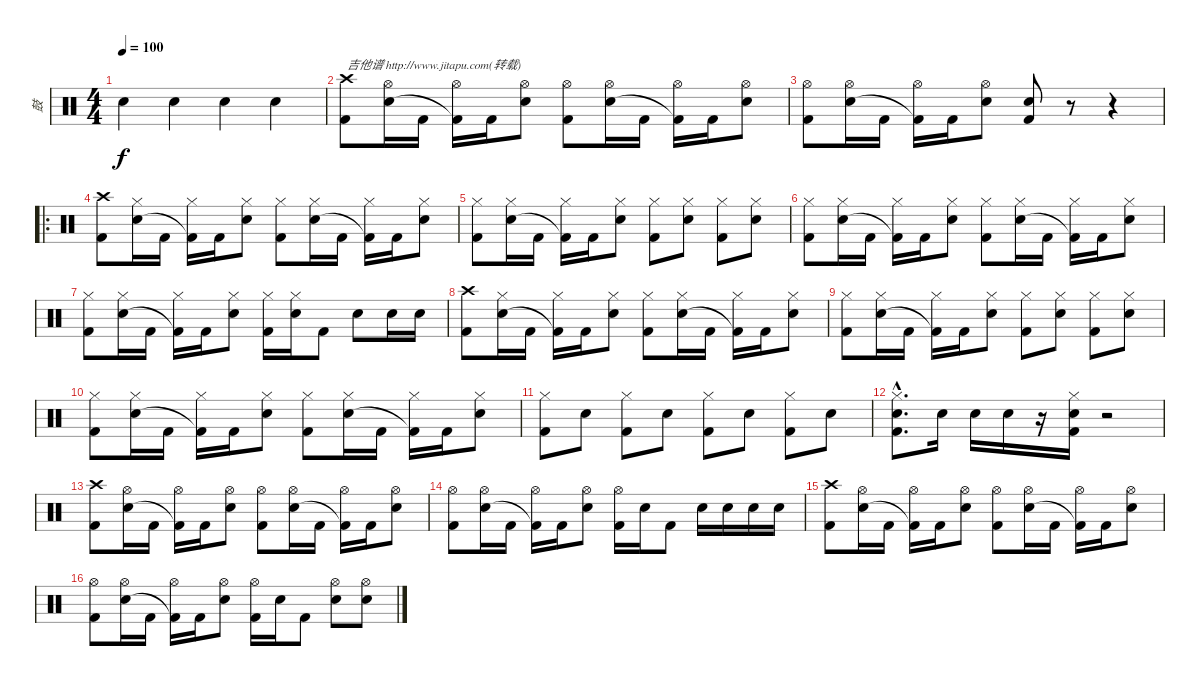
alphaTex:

\track ("鼓" "鼓") {instrument percussion}
\staff {score}
\articulation defaults
\ts (4 4)
\tempo 100
\clef neutral
\ks c "Hand Clap (hit)".4{dy f} "Hand Clap (hit)".4 "Hand Clap (hit)".4 "Hand Clap (hit)".4
|
("Crash high (hit)" "Kick (hit) 2").8{txt "吉他谱 http://www.jitapu.com(转载)"} ("Hi-Hat (open)" "Snare (hit) 2").16 "Kick (hit) 2".16 ("Hi-Hat (open)" "Kick (hit) 2"{t}).16 "Kick (hit) 2".16 ("Hi-Hat (open)" "Snare (hit) 2").8 ("Hi-Hat (open)" "Kick (hit) 2").8 ("Hi-Hat (open)" "Snare (hit) 2").16 "Kick (hit) 2".16 ("Hi-Hat (open)" "Kick (hit) 2"{t}).16 "Kick (hit) 2".16 ("Hi-Hat (open)" "Snare (hit) 2").8 |
("Hi-Hat (open)" "Kick (hit) 2").8 ("Hi-Hat (open)" "Snare (hit) 2").16 "Kick (hit) 2".16 ("Hi-Hat (open)" "Kick (hit) 2"{t}).16 "Kick (hit) 2".16 ("Hi-Hat (open)" "Snare (hit) 2").8 ("Kick (hit) 2" "Snare (hit) 2").8 r.8 r.4 |
\ro
("Crash high (hit)" "Kick (hit) 2").8 ("Hi-Hat (closed)" "Snare (hit) 2").16 "Kick (hit) 2".16 ("Hi-Hat (closed)" "Kick (hit) 2"{t}).16 "Kick (hit) 2".16 ("Hi-Hat (closed)" "Snare (hit) 2").8 ("Hi-Hat (closed)" "Kick (hit) 2").8 ("Hi-Hat (closed)" "Snare (hit) 2").16 "Kick (hit) 2".16 ("Hi-Hat (closed)" "Kick (hit) 2"{t}).16 "Kick (hit) 2".16 ("Hi-Hat (closed)" "Snare (hit) 2").8 |
("Hi-Hat (closed)" "Kick (hit) 2").8 ("Hi-Hat (closed)" "Snare (hit) 2").16 "Kick (hit) 2".16 ("Hi-Hat (closed)" "Kick (hit) 2"{t}).16 "Kick (hit) 2".16 ("Hi-Hat (closed)" "Snare (hit) 2").8 ("Hi-Hat (closed)" "Kick (hit) 2").8 ("Hi-Hat (closed)" "Snare (hit) 2").8 ("Hi-Hat (closed)" "Kick (hit) 2").8 ("Hi-Hat (closed)" "Snare (hit) 2").8 |
("Hi-Hat (closed)" "Kick (hit) 2").8 ("Hi-Hat (closed)" "Snare (hit) 2").16 "Kick (hit) 2".16 ("Hi-Hat (closed)" "Kick (hit) 2"{t}).16 "Kick (hit) 2".16 ("Hi-Hat (closed)" "Snare (hit) 2").8 ("Hi-Hat (closed)" "Kick (hit) 2").8 ("Hi-Hat (closed)" "Snare (hit) 2").16 "Kick (hit) 2".16 ("Hi-Hat (closed)" "Kick (hit) 2"{t}).16 "Kick (hit) 2".16 ("Hi-Hat (closed)" "Snare (hit) 2").8 |
("Hi-Hat (closed)" "Kick (hit) 2").8 ("Hi-Hat (closed)" "Snare (hit) 2").16 "Kick (hit) 2".16 ("Hi-Hat (closed)" "Kick (hit) 2"{t}).16 "Kick (hit) 2".16 ("Hi-Hat (closed)" "Snare (hit) 2").8 ("Hi-Hat (closed)" "Kick (hit) 2").16 ("Hi-Hat (closed)" "Snare (hit) 2").16 "Kick (hit) 2".8 "Snare (hit) 2".8 "Snare (hit) 2".16 "Snare (hit) 2".16 |
("Crash high (hit)" "Kick (hit) 2").8 ("Hi-Hat (closed)" "Snare (hit) 2").16 "Kick (hit) 2".16 ("Hi-Hat (closed)" "Kick (hit) 2"{t}).16 "Kick (hit) 2".16 ("Hi-Hat (closed)" "Snare (hit) 2").8 ("Hi-Hat (closed)" "Kick (hit) 2").8 ("Hi-Hat (closed)" "Snare (hit) 2").16 "Kick (hit) 2".16 ("Hi-Hat (closed)" "Kick (hit) 2"{t}).16 "Kick (hit) 2".16 ("Hi-Hat (closed)" "Snare (hit) 2").8 |
("Hi-Hat (closed)" "Kick (hit) 2").8 ("Hi-Hat (closed)" "Snare (hit) 2").16 "Kick (hit) 2".16 ("Hi-Hat (closed)" "Kick (hit) 2"{t}).16 "Kick (hit) 2".16 ("Hi-Hat (closed)" "Snare (hit) 2").8 ("Hi-Hat (closed)" "Kick (hit) 2").8 ("Hi-Hat (closed)" "Snare (hit) 2").8 ("Hi-Hat (closed)" "Kick (hit) 2").8 ("Hi-Hat (closed)" "Snare (hit) 2").8 |
("Hi-Hat (closed)" "Kick (hit) 2").8 ("Hi-Hat (closed)" "Snare (hit) 2").16 "Kick (hit) 2".16 ("Hi-Hat (closed)" "Kick (hit) 2"{t}).16 "Kick (hit) 2".16 ("Hi-Hat (closed)" "Snare (hit) 2").8 ("Hi-Hat (closed)" "Kick (hit) 2").8 ("Hi-Hat (closed)" "Snare (hit) 2").16 "Kick (hit) 2".16 ("Hi-Hat (closed)" "Kick (hit) 2"{t}).16 "Kick (hit) 2".16 ("Hi-Hat (closed)" "Snare (hit) 2").8 |
("Hi-Hat (closed)" "Kick (hit) 2").8 "Snare (hit) 2".8 ("Hi-Hat (closed)" "Kick (hit) 2").8 "Snare (hit) 2".8 ("Hi-Hat (closed)" "Kick (hit) 2").8 "Snare (hit) 2".8 ("Hi-Hat (closed)" "Kick (hit) 2").8 "Snare (hit) 2".8 |
("Hi-Hat (closed)"{hac} "Kick (hit) 2"{hac} "Snare (hit) 2"{hac}).8{d} "Snare (hit) 2".16 "Snare (hit) 2".16 "Snare (hit) 2".16 r.16 ("Hi-Hat (closed)" "Kick (hit) 2" "Snare (hit) 2").16 r.2 |
("Crash high (hit)" "Kick (hit) 2").8 ("Hi-Hat (open)" "Snare (hit) 2").16 "Kick (hit) 2".16 ("Hi-Hat (open)" "Kick (hit) 2"{t}).16 "Kick (hit) 2".16 ("Hi-Hat (open)" "Snare (hit) 2").8 ("Hi-Hat (open)" "Kick (hit) 2").8 ("Hi-Hat (open)" "Snare (hit) 2").16 "Kick (hit) 2".16 ("Hi-Hat (open)" "Kick (hit) 2"{t}).16 "Kick (hit) 2".16 ("Hi-Hat (open)" "Snare (hit) 2").8 |
("Hi-Hat (open)" "Kick (hit) 2").8 ("Hi-Hat (open)" "Snare (hit) 2").16 "Kick (hit) 2".16 ("Hi-Hat (open)" "Kick (hit) 2"{t}).16 "Kick (hit) 2".16 ("Hi-Hat (open)" "Snare (hit) 2").8 ("Hi-Hat (open)" "Kick (hit) 2").16 "Snare (hit) 2".16 "Kick (hit) 2".8 "Snare (hit) 2".16 "Snare (hit) 2".16 "Snare (hit) 2".16 "Snare (hit) 2".16 |
("Crash high (hit)" "Kick (hit) 2").8 ("Hi-Hat (open)" "Snare (hit) 2").16 "Kick (hit) 2".16 ("Hi-Hat (open)" "Kick (hit) 2"{t}).16 "Kick (hit) 2".16 ("Hi-Hat (open)" "Snare (hit) 2").8 ("Hi-Hat (open)" "Kick (hit) 2").8 ("Hi-Hat (open)" "Snare (hit) 2").16 "Kick (hit) 2".16 ("Hi-Hat (open)" "Kick (hit) 2"{t}).16 "Kick (hit) 2".16 ("Hi-Hat (open)" "Snare (hit) 2").8 |
("Hi-Hat (open)" "Kick (hit) 2").8 ("Hi-Hat (open)" "Snare (hit) 2").16 "Kick (hit) 2".16 ("Hi-Hat (open)" "Kick (hit) 2"{t}).16 "Kick (hit) 2".16 ("Hi-Hat (open)" "Snare (hit) 2").8 ("Hi-Hat (open)" "Kick (hit) 2").16 "Snare (hit) 2".16 "Kick (hit) 2".8 ("Hi-Hat (open)" "Snare (hit) 2").8 ("Hi-Hat (open)" "Snare (hit) 2").8
